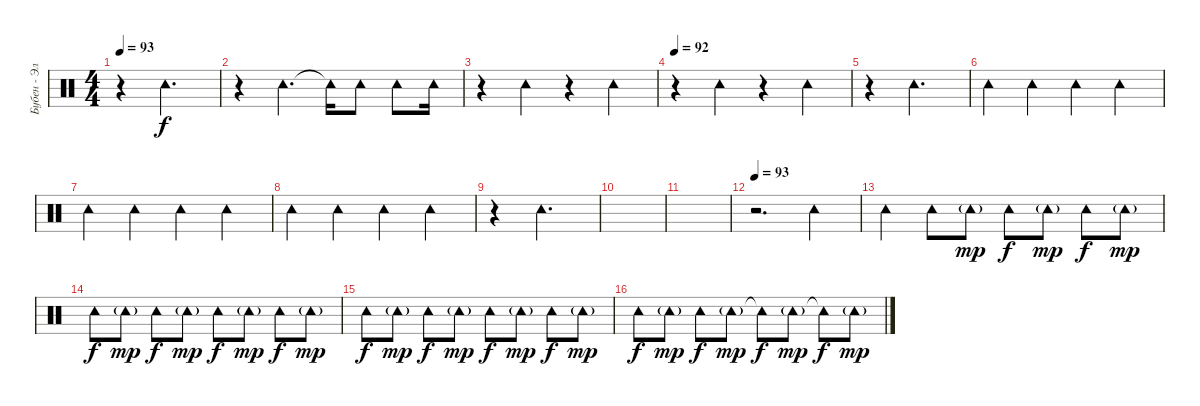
\track ("Бубен - Элисон Моссхарт" "Бубен - Эл") {instrument percussion}
\staff {score}
\articulation defaults
\ts (4 4)
\tempo 93
\clef neutral
\ks c
r.4{dy f} "Tambourine (hit)".2{d} |
r.4 "Tambourine (hit)".4{d} "Tambourine (hit)"{t}.16 "Tambourine (hit)".8 "Tambourine (hit)".8 "Tambourine (hit)".16 |
r.4 "Tambourine (hit)".4 r.4 "Tambourine (hit)".4 |
\tempo 92
r.4 "Tambourine (hit)".4 r.4 "Tambourine (hit)".4 |
r.4 "Tambourine (hit)".2{d} |
"Tambourine (hit)".4 "Tambourine (hit)".4 "Tambourine (hit)".4 "Tambourine (hit)".4 |
"Tambourine (hit)".4 "Tambourine (hit)".4 "Tambourine (hit)".4 "Tambourine (hit)".4 |
"Tambourine (hit)".4 "Tambourine (hit)".4 "Tambourine (hit)".4 "Tambourine (hit)".4 |
r.4 "Tambourine (hit)".2{d} |
|
|
\tempo 93
r.2{d} "Tambourine (hit)".4 |
"Tambourine (hit)".4 "Tambourine (hit)".8 "Tambourine (hit)"{g}.8{dy mp} "Tambourine (hit)".8{dy f} "Tambourine (hit)"{g}.8{dy mp} "Tambourine (hit)".8{dy f} "Tambourine (hit)"{g}.8{dy mp} |
"Tambourine (hit)".8{dy f} "Tambourine (hit)"{g}.8{dy mp} "Tambourine (hit)".8{dy f} "Tambourine (hit)"{g}.8{dy mp} "Tambourine (hit)".8{dy f} "Tambourine (hit)"{g}.8{dy mp} "Tambourine (hit)".8{dy f} "Tambourine (hit)"{g}.8{dy mp} |
"Tambourine (hit)".8{dy f} "Tambourine (hit)"{g}.8{dy mp} "Tambourine (hit)".8{dy f} "Tambourine (hit)"{g}.8{dy mp} "Tambourine (hit)".8{dy f} "Tambourine (hit)"{g}.8{dy mp} "Tambourine (hit)".8{dy f} "Tambourine (hit)"{g}.8{dy mp} |
"Tambourine (hit)".8{dy f} "Tambourine (hit)"{g}.8{dy mp} "Tambourine (hit)".8{dy f} "Tambourine (hit)"{g}.8{dy mp} "Tambourine (hit)"{t}.8{dy f} "Tambourine (hit)"{g}.8{dy mp} "Tambourine (hit)"{t}.8{dy f} "Tambourine (hit)"{g}.8{dy mp}
